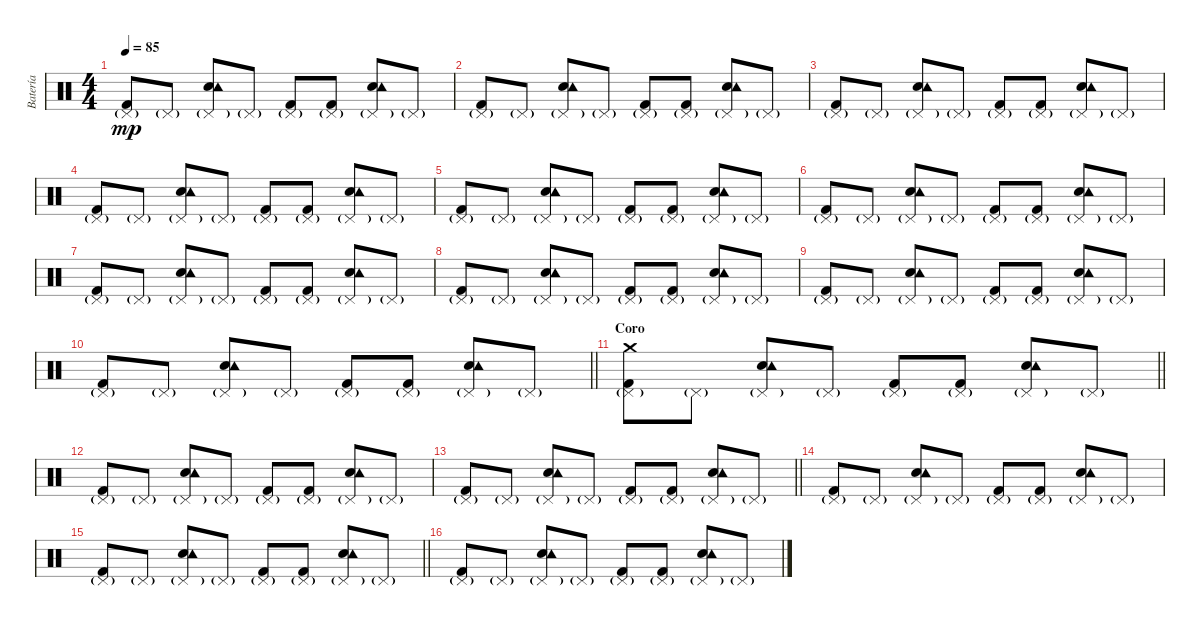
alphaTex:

\track ("Batería" "Batería") {instrument percussion}
\staff {score}
\articulation defaults
\ts (4 4)
\tempo 85
\clef neutral
\ks c
("Pedal Hi-Hat (hit)"{g} "Kick (hit) 2").8{dy mp} "Pedal Hi-Hat (hit)"{g}.8 ("Pedal Hi-Hat (hit)"{g} "Electric Snare (hit)" "Tambourine (hit)").8 "Pedal Hi-Hat (hit)"{g}.8 ("Pedal Hi-Hat (hit)"{g} "Kick (hit) 2").8 ("Pedal Hi-Hat (hit)"{g} "Kick (hit) 2").8 ("Pedal Hi-Hat (hit)"{g} "Electric Snare (hit)" "Tambourine (hit)").8 "Pedal Hi-Hat (hit)"{g}.8 |
("Pedal Hi-Hat (hit)"{g} "Kick (hit) 2").8 "Pedal Hi-Hat (hit)"{g}.8 ("Pedal Hi-Hat (hit)"{g} "Electric Snare (hit)" "Tambourine (hit)").8 "Pedal Hi-Hat (hit)"{g}.8 ("Pedal Hi-Hat (hit)"{g} "Kick (hit) 2").8 ("Pedal Hi-Hat (hit)"{g} "Kick (hit) 2").8 ("Pedal Hi-Hat (hit)"{g} "Electric Snare (hit)" "Tambourine (hit)").8 "Pedal Hi-Hat (hit)"{g}.8 |
("Pedal Hi-Hat (hit)"{g} "Kick (hit) 2").8 "Pedal Hi-Hat (hit)"{g}.8 ("Pedal Hi-Hat (hit)"{g} "Electric Snare (hit)" "Tambourine (hit)").8 "Pedal Hi-Hat (hit)"{g}.8 ("Pedal Hi-Hat (hit)"{g} "Kick (hit) 2").8 ("Pedal Hi-Hat (hit)"{g} "Kick (hit) 2").8 ("Pedal Hi-Hat (hit)"{g} "Electric Snare (hit)" "Tambourine (hit)").8 "Pedal Hi-Hat (hit)"{g}.8 |
("Pedal Hi-Hat (hit)"{g} "Kick (hit) 2").8 "Pedal Hi-Hat (hit)"{g}.8 ("Pedal Hi-Hat (hit)"{g} "Electric Snare (hit)" "Tambourine (hit)").8 "Pedal Hi-Hat (hit)"{g}.8 ("Pedal Hi-Hat (hit)"{g} "Kick (hit) 2").8 ("Pedal Hi-Hat (hit)"{g} "Kick (hit) 2").8 ("Pedal Hi-Hat (hit)"{g} "Electric Snare (hit)" "Tambourine (hit)").8 "Pedal Hi-Hat (hit)"{g}.8 |
("Pedal Hi-Hat (hit)"{g} "Kick (hit) 2").8 "Pedal Hi-Hat (hit)"{g}.8 ("Pedal Hi-Hat (hit)"{g} "Electric Snare (hit)" "Tambourine (hit)").8 "Pedal Hi-Hat (hit)"{g}.8 ("Pedal Hi-Hat (hit)"{g} "Kick (hit) 2").8 ("Pedal Hi-Hat (hit)"{g} "Kick (hit) 2").8 ("Pedal Hi-Hat (hit)"{g} "Electric Snare (hit)" "Tambourine (hit)").8 "Pedal Hi-Hat (hit)"{g}.8 |
("Pedal Hi-Hat (hit)"{g} "Kick (hit) 2").8 "Pedal Hi-Hat (hit)"{g}.8 ("Pedal Hi-Hat (hit)"{g} "Electric Snare (hit)" "Tambourine (hit)").8 "Pedal Hi-Hat (hit)"{g}.8 ("Pedal Hi-Hat (hit)"{g} "Kick (hit) 2").8 ("Pedal Hi-Hat (hit)"{g} "Kick (hit) 2").8 ("Pedal Hi-Hat (hit)"{g} "Electric Snare (hit)" "Tambourine (hit)").8 "Pedal Hi-Hat (hit)"{g}.8 |
("Pedal Hi-Hat (hit)"{g} "Kick (hit) 2").8 "Pedal Hi-Hat (hit)"{g}.8 ("Pedal Hi-Hat (hit)"{g} "Electric Snare (hit)" "Tambourine (hit)").8 "Pedal Hi-Hat (hit)"{g}.8 ("Pedal Hi-Hat (hit)"{g} "Kick (hit) 2").8 ("Pedal Hi-Hat (hit)"{g} "Kick (hit) 2").8 ("Pedal Hi-Hat (hit)"{g} "Electric Snare (hit)" "Tambourine (hit)").8 "Pedal Hi-Hat (hit)"{g}.8 |
("Pedal Hi-Hat (hit)"{g} "Kick (hit) 2").8 "Pedal Hi-Hat (hit)"{g}.8 ("Pedal Hi-Hat (hit)"{g} "Electric Snare (hit)" "Tambourine (hit)").8 "Pedal Hi-Hat (hit)"{g}.8 ("Pedal Hi-Hat (hit)"{g} "Kick (hit) 2").8 ("Pedal Hi-Hat (hit)"{g} "Kick (hit) 2").8 ("Pedal Hi-Hat (hit)"{g} "Electric Snare (hit)" "Tambourine (hit)").8 "Pedal Hi-Hat (hit)"{g}.8 |
("Pedal Hi-Hat (hit)"{g} "Kick (hit) 2").8 "Pedal Hi-Hat (hit)"{g}.8 ("Pedal Hi-Hat (hit)"{g} "Electric Snare (hit)" "Tambourine (hit)").8 "Pedal Hi-Hat (hit)"{g}.8 ("Pedal Hi-Hat (hit)"{g} "Kick (hit) 2").8 ("Pedal Hi-Hat (hit)"{g} "Kick (hit) 2").8 ("Pedal Hi-Hat (hit)"{g} "Electric Snare (hit)" "Tambourine (hit)").8 "Pedal Hi-Hat (hit)"{g}.8 |
\barLineRight lightlight
("Pedal Hi-Hat (hit)"{g} "Kick (hit) 2").8 "Pedal Hi-Hat (hit)"{g}.8 ("Pedal Hi-Hat (hit)"{g} "Electric Snare (hit)" "Tambourine (hit)").8 "Pedal Hi-Hat (hit)"{g}.8 ("Pedal Hi-Hat (hit)"{g} "Kick (hit) 2").8 ("Pedal Hi-Hat (hit)"{g} "Kick (hit) 2").8 ("Pedal Hi-Hat (hit)"{g} "Electric Snare (hit)" "Tambourine (hit)").8 "Pedal Hi-Hat (hit)"{g}.8 |
\section ("" "Coro")
\barLineRight lightlight
("Pedal Hi-Hat (hit)"{g} "Kick (hit) 2" "Crash medium (hit)").8 "Pedal Hi-Hat (hit)"{g}.8 ("Pedal Hi-Hat (hit)"{g} "Electric Snare (hit)" "Tambourine (hit)").8 "Pedal Hi-Hat (hit)"{g}.8 ("Pedal Hi-Hat (hit)"{g} "Kick (hit) 2").8 ("Pedal Hi-Hat (hit)"{g} "Kick (hit) 2").8 ("Pedal Hi-Hat (hit)"{g} "Electric Snare (hit)" "Tambourine (hit)").8 "Pedal Hi-Hat (hit)"{g}.8 |
("Pedal Hi-Hat (hit)"{g} "Kick (hit) 2").8 "Pedal Hi-Hat (hit)"{g}.8 ("Pedal Hi-Hat (hit)"{g} "Electric Snare (hit)" "Tambourine (hit)").8 "Pedal Hi-Hat (hit)"{g}.8 ("Pedal Hi-Hat (hit)"{g} "Kick (hit) 2").8 ("Pedal Hi-Hat (hit)"{g} "Kick (hit) 2").8 ("Pedal Hi-Hat (hit)"{g} "Electric Snare (hit)" "Tambourine (hit)").8 "Pedal Hi-Hat (hit)"{g}.8 |
\barLineRight lightlight
("Pedal Hi-Hat (hit)"{g} "Kick (hit) 2").8 "Pedal Hi-Hat (hit)"{g}.8 ("Pedal Hi-Hat (hit)"{g} "Electric Snare (hit)" "Tambourine (hit)").8 "Pedal Hi-Hat (hit)"{g}.8 ("Pedal Hi-Hat (hit)"{g} "Kick (hit) 2").8 ("Pedal Hi-Hat (hit)"{g} "Kick (hit) 2").8 ("Pedal Hi-Hat (hit)"{g} "Electric Snare (hit)" "Tambourine (hit)").8 "Pedal Hi-Hat (hit)"{g}.8 |
("Pedal Hi-Hat (hit)"{g} "Kick (hit) 2").8 "Pedal Hi-Hat (hit)"{g}.8 ("Pedal Hi-Hat (hit)"{g} "Electric Snare (hit)" "Tambourine (hit)").8 "Pedal Hi-Hat (hit)"{g}.8 ("Pedal Hi-Hat (hit)"{g} "Kick (hit) 2").8 ("Pedal Hi-Hat (hit)"{g} "Kick (hit) 2").8 ("Pedal Hi-Hat (hit)"{g} "Electric Snare (hit)" "Tambourine (hit)").8 "Pedal Hi-Hat (hit)"{g}.8 |
\barLineRight lightlight
("Pedal Hi-Hat (hit)"{g} "Kick (hit) 2").8 "Pedal Hi-Hat (hit)"{g}.8 ("Pedal Hi-Hat (hit)"{g} "Electric Snare (hit)" "Tambourine (hit)").8 "Pedal Hi-Hat (hit)"{g}.8 ("Pedal Hi-Hat (hit)"{g} "Kick (hit) 2").8 ("Pedal Hi-Hat (hit)"{g} "Kick (hit) 2").8 ("Pedal Hi-Hat (hit)"{g} "Electric Snare (hit)" "Tambourine (hit)").8 "Pedal Hi-Hat (hit)"{g}.8 |
("Pedal Hi-Hat (hit)"{g} "Kick (hit) 2").8 "Pedal Hi-Hat (hit)"{g}.8 ("Pedal Hi-Hat (hit)"{g} "Electric Snare (hit)" "Tambourine (hit)").8 "Pedal Hi-Hat (hit)"{g}.8 ("Pedal Hi-Hat (hit)"{g} "Kick (hit) 2").8 ("Pedal Hi-Hat (hit)"{g} "Kick (hit) 2").8 ("Pedal Hi-Hat (hit)"{g} "Electric Snare (hit)" "Tambourine (hit)").8 "Pedal Hi-Hat (hit)"{g}.8
